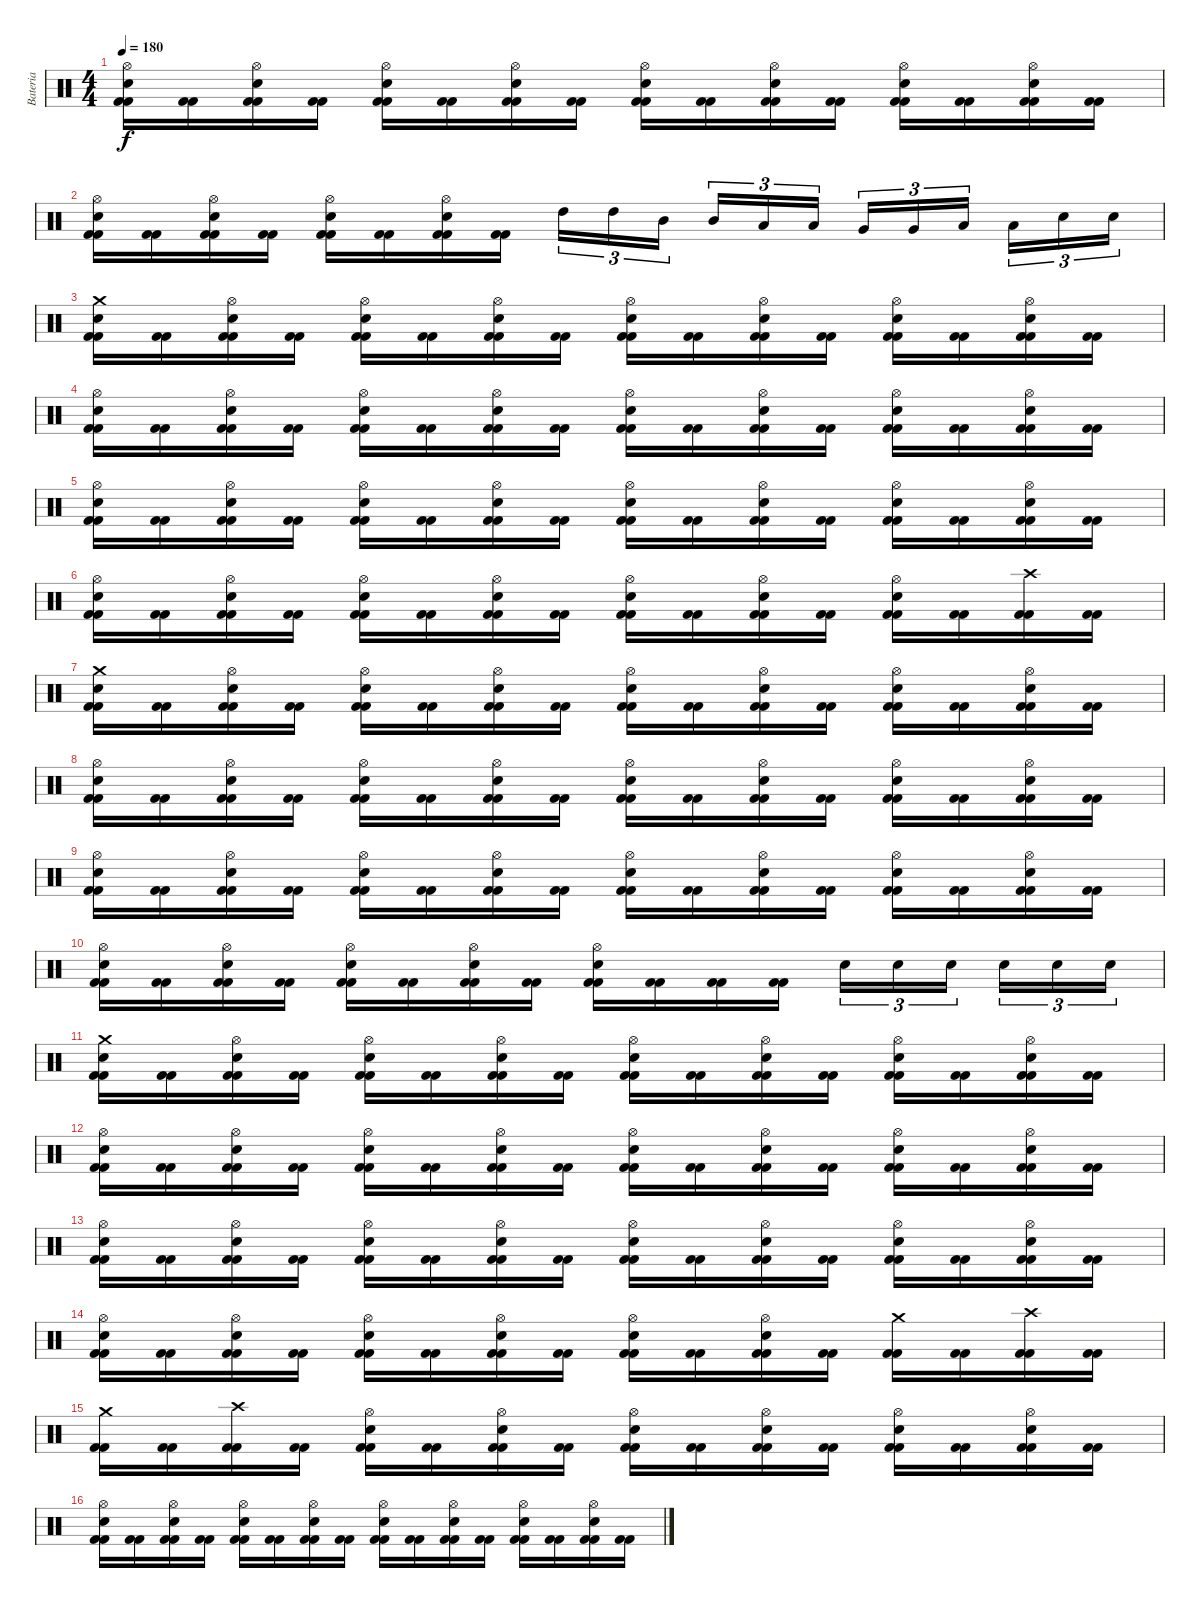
\track ("Bateria" "Bateria") {instrument percussion}
\staff {score}
\articulation defaults
\ts (4 4)
\tempo 180
\clef neutral
\ks c
("Kick (hit) 2" "Kick (hit) 2" "Snare (hit) 2" "Hi-Hat (open)").16{dy f} ("Kick (hit) 2" "Kick (hit) 2").16 ("Kick (hit) 2" "Kick (hit) 2" "Hi-Hat (open)" "Snare (hit) 2").16 ("Kick (hit) 2" "Kick (hit) 2").16 ("Kick (hit) 2" "Kick (hit) 2" "Snare (hit) 2" "Hi-Hat (open)").16 ("Kick (hit) 2" "Kick (hit) 2").16 ("Kick (hit) 2" "Kick (hit) 2" "Hi-Hat (open)" "Snare (hit) 2").16 ("Kick (hit) 2" "Kick (hit) 2").16 ("Kick (hit) 2" "Kick (hit) 2" "Snare (hit) 2" "Hi-Hat (open)").16 ("Kick (hit) 2" "Kick (hit) 2").16 ("Kick (hit) 2" "Kick (hit) 2" "Hi-Hat (open)" "Snare (hit) 2").16 ("Kick (hit) 2" "Kick (hit) 2").16 ("Kick (hit) 2" "Kick (hit) 2" "Snare (hit) 2" "Hi-Hat (open)").16 ("Kick (hit) 2" "Kick (hit) 2").16 ("Kick (hit) 2" "Kick (hit) 2" "Hi-Hat (open)" "Snare (hit) 2").16 ("Kick (hit) 2" "Kick (hit) 2").16 |
("Kick (hit) 2" "Kick (hit) 2" "Snare (hit) 2" "Hi-Hat (open)").16 ("Kick (hit) 2" "Kick (hit) 2").16 ("Kick (hit) 2" "Kick (hit) 2" "Hi-Hat (open)" "Snare (hit) 2").16 ("Kick (hit) 2" "Kick (hit) 2").16 ("Kick (hit) 2" "Kick (hit) 2" "Snare (hit) 2" "Hi-Hat (open)").16 ("Kick (hit) 2" "Kick (hit) 2").16 ("Kick (hit) 2" "Kick (hit) 2" "Hi-Hat (open)" "Snare (hit) 2").16 ("Kick (hit) 2" "Kick (hit) 2").16 "High Tom (hit)".16{tu (3 2)} "High Tom (hit)".16{tu (3 2)} "Mid Tom (hit)".16{tu (3 2)} "Mid Tom (hit)".16{tu (3 2)} "Low Tom (hit)".16{tu (3 2)} "Low Tom (hit)".16{tu (3 2)} "Very Low Tom (hit)".16{tu (3 2)} "Very Low Tom (hit)".16{tu (3 2)} "Low Floor Tom (hit)".16{tu (3 2)} "Low Floor Tom (hit)".16{tu (3 2)} "Electric Snare (hit)".16{tu (3 2)} "Electric Snare (hit)".16{tu (3 2)} |
("Kick (hit) 2" "Kick (hit) 2" "Snare (hit) 2" "Crash medium (hit)").16 ("Kick (hit) 2" "Kick (hit) 2").16 ("Kick (hit) 2" "Kick (hit) 2" "Hi-Hat (open)" "Snare (hit) 2").16 ("Kick (hit) 2" "Kick (hit) 2").16 ("Kick (hit) 2" "Kick (hit) 2" "Snare (hit) 2" "Hi-Hat (open)").16 ("Kick (hit) 2" "Kick (hit) 2").16 ("Kick (hit) 2" "Kick (hit) 2" "Hi-Hat (open)" "Snare (hit) 2").16 ("Kick (hit) 2" "Kick (hit) 2").16 ("Kick (hit) 2" "Kick (hit) 2" "Snare (hit) 2" "Hi-Hat (open)").16 ("Kick (hit) 2" "Kick (hit) 2").16 ("Kick (hit) 2" "Kick (hit) 2" "Hi-Hat (open)" "Snare (hit) 2").16 ("Kick (hit) 2" "Kick (hit) 2").16 ("Kick (hit) 2" "Kick (hit) 2" "Snare (hit) 2" "Hi-Hat (open)").16 ("Kick (hit) 2" "Kick (hit) 2").16 ("Kick (hit) 2" "Kick (hit) 2" "Hi-Hat (open)" "Snare (hit) 2").16 ("Kick (hit) 2" "Kick (hit) 2").16 |
("Kick (hit) 2" "Kick (hit) 2" "Snare (hit) 2" "Hi-Hat (open)").16 ("Kick (hit) 2" "Kick (hit) 2").16 ("Kick (hit) 2" "Kick (hit) 2" "Hi-Hat (open)" "Snare (hit) 2").16 ("Kick (hit) 2" "Kick (hit) 2").16 ("Kick (hit) 2" "Kick (hit) 2" "Snare (hit) 2" "Hi-Hat (open)").16 ("Kick (hit) 2" "Kick (hit) 2").16 ("Kick (hit) 2" "Kick (hit) 2" "Hi-Hat (open)" "Snare (hit) 2").16 ("Kick (hit) 2" "Kick (hit) 2").16 ("Kick (hit) 2" "Kick (hit) 2" "Snare (hit) 2" "Hi-Hat (open)").16 ("Kick (hit) 2" "Kick (hit) 2").16 ("Kick (hit) 2" "Kick (hit) 2" "Hi-Hat (open)" "Snare (hit) 2").16 ("Kick (hit) 2" "Kick (hit) 2").16 ("Kick (hit) 2" "Kick (hit) 2" "Snare (hit) 2" "Hi-Hat (open)").16 ("Kick (hit) 2" "Kick (hit) 2").16 ("Kick (hit) 2" "Kick (hit) 2" "Hi-Hat (open)" "Snare (hit) 2").16 ("Kick (hit) 2" "Kick (hit) 2").16 |
("Kick (hit) 2" "Kick (hit) 2" "Snare (hit) 2" "Hi-Hat (open)").16 ("Kick (hit) 2" "Kick (hit) 2").16 ("Kick (hit) 2" "Kick (hit) 2" "Hi-Hat (open)" "Snare (hit) 2").16 ("Kick (hit) 2" "Kick (hit) 2").16 ("Kick (hit) 2" "Kick (hit) 2" "Snare (hit) 2" "Hi-Hat (open)").16 ("Kick (hit) 2" "Kick (hit) 2").16 ("Kick (hit) 2" "Kick (hit) 2" "Hi-Hat (open)" "Snare (hit) 2").16 ("Kick (hit) 2" "Kick (hit) 2").16 ("Kick (hit) 2" "Kick (hit) 2" "Snare (hit) 2" "Hi-Hat (open)").16 ("Kick (hit) 2" "Kick (hit) 2").16 ("Kick (hit) 2" "Kick (hit) 2" "Hi-Hat (open)" "Snare (hit) 2").16 ("Kick (hit) 2" "Kick (hit) 2").16 ("Kick (hit) 2" "Kick (hit) 2" "Snare (hit) 2" "Hi-Hat (open)").16 ("Kick (hit) 2" "Kick (hit) 2").16 ("Kick (hit) 2" "Kick (hit) 2" "Hi-Hat (open)" "Snare (hit) 2").16 ("Kick (hit) 2" "Kick (hit) 2").16 |
("Kick (hit) 2" "Kick (hit) 2" "Snare (hit) 2" "Hi-Hat (open)").16 ("Kick (hit) 2" "Kick (hit) 2").16 ("Kick (hit) 2" "Kick (hit) 2" "Hi-Hat (open)" "Snare (hit) 2").16 ("Kick (hit) 2" "Kick (hit) 2").16 ("Kick (hit) 2" "Kick (hit) 2" "Snare (hit) 2" "Hi-Hat (open)").16 ("Kick (hit) 2" "Kick (hit) 2").16 ("Kick (hit) 2" "Kick (hit) 2" "Hi-Hat (open)" "Snare (hit) 2").16 ("Kick (hit) 2" "Kick (hit) 2").16 ("Kick (hit) 2" "Kick (hit) 2" "Snare (hit) 2" "Hi-Hat (open)").16 ("Kick (hit) 2" "Kick (hit) 2").16 ("Kick (hit) 2" "Kick (hit) 2" "Hi-Hat (open)" "Snare (hit) 2").16 ("Kick (hit) 2" "Kick (hit) 2").16 ("Kick (hit) 2" "Kick (hit) 2" "Snare (hit) 2" "Hi-Hat (open)").16 ("Kick (hit) 2" "Kick (hit) 2").16 ("Kick (hit) 2" "Kick (hit) 2" "Crash high (hit)").16 ("Kick (hit) 2" "Kick (hit) 2").16 |
("Kick (hit) 2" "Kick (hit) 2" "Snare (hit) 2" "Crash medium (hit)").16 ("Kick (hit) 2" "Kick (hit) 2").16 ("Kick (hit) 2" "Kick (hit) 2" "Hi-Hat (open)" "Snare (hit) 2").16 ("Kick (hit) 2" "Kick (hit) 2").16 ("Kick (hit) 2" "Kick (hit) 2" "Snare (hit) 2" "Hi-Hat (open)").16 ("Kick (hit) 2" "Kick (hit) 2").16 ("Kick (hit) 2" "Kick (hit) 2" "Hi-Hat (open)" "Snare (hit) 2").16 ("Kick (hit) 2" "Kick (hit) 2").16 ("Kick (hit) 2" "Kick (hit) 2" "Snare (hit) 2" "Hi-Hat (open)").16 ("Kick (hit) 2" "Kick (hit) 2").16 ("Kick (hit) 2" "Kick (hit) 2" "Hi-Hat (open)" "Snare (hit) 2").16 ("Kick (hit) 2" "Kick (hit) 2").16 ("Kick (hit) 2" "Kick (hit) 2" "Snare (hit) 2" "Hi-Hat (open)").16 ("Kick (hit) 2" "Kick (hit) 2").16 ("Kick (hit) 2" "Kick (hit) 2" "Hi-Hat (open)" "Snare (hit) 2").16 ("Kick (hit) 2" "Kick (hit) 2").16 |
("Kick (hit) 2" "Kick (hit) 2" "Snare (hit) 2" "Hi-Hat (open)").16 ("Kick (hit) 2" "Kick (hit) 2").16 ("Kick (hit) 2" "Kick (hit) 2" "Hi-Hat (open)" "Snare (hit) 2").16 ("Kick (hit) 2" "Kick (hit) 2").16 ("Kick (hit) 2" "Kick (hit) 2" "Snare (hit) 2" "Hi-Hat (open)").16 ("Kick (hit) 2" "Kick (hit) 2").16 ("Kick (hit) 2" "Kick (hit) 2" "Hi-Hat (open)" "Snare (hit) 2").16 ("Kick (hit) 2" "Kick (hit) 2").16 ("Kick (hit) 2" "Kick (hit) 2" "Snare (hit) 2" "Hi-Hat (open)").16 ("Kick (hit) 2" "Kick (hit) 2").16 ("Kick (hit) 2" "Kick (hit) 2" "Hi-Hat (open)" "Snare (hit) 2").16 ("Kick (hit) 2" "Kick (hit) 2").16 ("Kick (hit) 2" "Kick (hit) 2" "Snare (hit) 2" "Hi-Hat (open)").16 ("Kick (hit) 2" "Kick (hit) 2").16 ("Kick (hit) 2" "Kick (hit) 2" "Hi-Hat (open)" "Snare (hit) 2").16 ("Kick (hit) 2" "Kick (hit) 2").16 |
("Kick (hit) 2" "Kick (hit) 2" "Snare (hit) 2" "Hi-Hat (open)").16 ("Kick (hit) 2" "Kick (hit) 2").16 ("Kick (hit) 2" "Kick (hit) 2" "Hi-Hat (open)" "Snare (hit) 2").16 ("Kick (hit) 2" "Kick (hit) 2").16 ("Kick (hit) 2" "Kick (hit) 2" "Snare (hit) 2" "Hi-Hat (open)").16 ("Kick (hit) 2" "Kick (hit) 2").16 ("Kick (hit) 2" "Kick (hit) 2" "Hi-Hat (open)" "Snare (hit) 2").16 ("Kick (hit) 2" "Kick (hit) 2").16 ("Kick (hit) 2" "Kick (hit) 2" "Snare (hit) 2" "Hi-Hat (open)").16 ("Kick (hit) 2" "Kick (hit) 2").16 ("Kick (hit) 2" "Kick (hit) 2" "Hi-Hat (open)" "Snare (hit) 2").16 ("Kick (hit) 2" "Kick (hit) 2").16 ("Kick (hit) 2" "Kick (hit) 2" "Snare (hit) 2" "Hi-Hat (open)").16 ("Kick (hit) 2" "Kick (hit) 2").16 ("Kick (hit) 2" "Kick (hit) 2" "Hi-Hat (open)" "Snare (hit) 2").16 ("Kick (hit) 2" "Kick (hit) 2").16 |
("Kick (hit) 2" "Kick (hit) 2" "Snare (hit) 2" "Hi-Hat (open)").16 ("Kick (hit) 2" "Kick (hit) 2").16 ("Kick (hit) 2" "Kick (hit) 2" "Hi-Hat (open)" "Snare (hit) 2").16 ("Kick (hit) 2" "Kick (hit) 2").16 ("Kick (hit) 2" "Kick (hit) 2" "Snare (hit) 2" "Hi-Hat (open)").16 ("Kick (hit) 2" "Kick (hit) 2").16 ("Kick (hit) 2" "Kick (hit) 2" "Hi-Hat (open)" "Snare (hit) 2").16 ("Kick (hit) 2" "Kick (hit) 2").16 ("Kick (hit) 2" "Kick (hit) 2" "Hi-Hat (open)" "Snare (hit) 2").16 ("Kick (hit) 2" "Kick (hit) 2").16 ("Kick (hit) 2" "Kick (hit) 2").16 ("Kick (hit) 2" "Kick (hit) 2").16 "Electric Snare (hit)".16{tu (3 2)} "Electric Snare (hit)".16{tu (3 2)} "Electric Snare (hit)".16{tu (3 2)} "Electric Snare (hit)".16{tu (3 2)} "Electric Snare (hit)".16{tu (3 2)} "Electric Snare (hit)".16{tu (3 2)} |
("Kick (hit) 2" "Kick (hit) 2" "Snare (hit) 2" "Crash medium (hit)").16 ("Kick (hit) 2" "Kick (hit) 2").16 ("Kick (hit) 2" "Kick (hit) 2" "Hi-Hat (open)" "Snare (hit) 2").16 ("Kick (hit) 2" "Kick (hit) 2").16 ("Kick (hit) 2" "Kick (hit) 2" "Snare (hit) 2" "Hi-Hat (open)").16 ("Kick (hit) 2" "Kick (hit) 2").16 ("Kick (hit) 2" "Kick (hit) 2" "Hi-Hat (open)" "Snare (hit) 2").16 ("Kick (hit) 2" "Kick (hit) 2").16 ("Kick (hit) 2" "Kick (hit) 2" "Snare (hit) 2" "Hi-Hat (open)").16 ("Kick (hit) 2" "Kick (hit) 2").16 ("Kick (hit) 2" "Kick (hit) 2" "Hi-Hat (open)" "Snare (hit) 2").16 ("Kick (hit) 2" "Kick (hit) 2").16 ("Kick (hit) 2" "Kick (hit) 2" "Snare (hit) 2" "Hi-Hat (open)").16 ("Kick (hit) 2" "Kick (hit) 2").16 ("Kick (hit) 2" "Kick (hit) 2" "Hi-Hat (open)" "Snare (hit) 2").16 ("Kick (hit) 2" "Kick (hit) 2").16 |
("Kick (hit) 2" "Kick (hit) 2" "Snare (hit) 2" "Hi-Hat (open)").16 ("Kick (hit) 2" "Kick (hit) 2").16 ("Kick (hit) 2" "Kick (hit) 2" "Hi-Hat (open)" "Snare (hit) 2").16 ("Kick (hit) 2" "Kick (hit) 2").16 ("Kick (hit) 2" "Kick (hit) 2" "Snare (hit) 2" "Hi-Hat (open)").16 ("Kick (hit) 2" "Kick (hit) 2").16 ("Kick (hit) 2" "Kick (hit) 2" "Hi-Hat (open)" "Snare (hit) 2").16 ("Kick (hit) 2" "Kick (hit) 2").16 ("Kick (hit) 2" "Kick (hit) 2" "Snare (hit) 2" "Hi-Hat (open)").16 ("Kick (hit) 2" "Kick (hit) 2").16 ("Kick (hit) 2" "Kick (hit) 2" "Hi-Hat (open)" "Snare (hit) 2").16 ("Kick (hit) 2" "Kick (hit) 2").16 ("Kick (hit) 2" "Kick (hit) 2" "Snare (hit) 2" "Hi-Hat (open)").16 ("Kick (hit) 2" "Kick (hit) 2").16 ("Kick (hit) 2" "Kick (hit) 2" "Hi-Hat (open)" "Snare (hit) 2").16 ("Kick (hit) 2" "Kick (hit) 2").16 |
("Kick (hit) 2" "Kick (hit) 2" "Snare (hit) 2" "Hi-Hat (open)").16 ("Kick (hit) 2" "Kick (hit) 2").16 ("Kick (hit) 2" "Kick (hit) 2" "Hi-Hat (open)" "Snare (hit) 2").16 ("Kick (hit) 2" "Kick (hit) 2").16 ("Kick (hit) 2" "Kick (hit) 2" "Snare (hit) 2" "Hi-Hat (open)").16 ("Kick (hit) 2" "Kick (hit) 2").16 ("Kick (hit) 2" "Kick (hit) 2" "Hi-Hat (open)" "Snare (hit) 2").16 ("Kick (hit) 2" "Kick (hit) 2").16 ("Kick (hit) 2" "Kick (hit) 2" "Snare (hit) 2" "Hi-Hat (open)").16 ("Kick (hit) 2" "Kick (hit) 2").16 ("Kick (hit) 2" "Kick (hit) 2" "Hi-Hat (open)" "Snare (hit) 2").16 ("Kick (hit) 2" "Kick (hit) 2").16 ("Kick (hit) 2" "Kick (hit) 2" "Snare (hit) 2" "Hi-Hat (open)").16 ("Kick (hit) 2" "Kick (hit) 2").16 ("Kick (hit) 2" "Kick (hit) 2" "Hi-Hat (open)" "Snare (hit) 2").16 ("Kick (hit) 2" "Kick (hit) 2").16 |
("Kick (hit) 2" "Kick (hit) 2" "Snare (hit) 2" "Hi-Hat (open)").16 ("Kick (hit) 2" "Kick (hit) 2").16 ("Kick (hit) 2" "Kick (hit) 2" "Hi-Hat (open)" "Snare (hit) 2").16 ("Kick (hit) 2" "Kick (hit) 2").16 ("Kick (hit) 2" "Kick (hit) 2" "Snare (hit) 2" "Hi-Hat (open)").16 ("Kick (hit) 2" "Kick (hit) 2").16 ("Kick (hit) 2" "Kick (hit) 2" "Hi-Hat (open)" "Snare (hit) 2").16 ("Kick (hit) 2" "Kick (hit) 2").16 ("Kick (hit) 2" "Kick (hit) 2" "Snare (hit) 2" "Hi-Hat (open)").16 ("Kick (hit) 2" "Kick (hit) 2").16 ("Kick (hit) 2" "Kick (hit) 2" "Hi-Hat (open)" "Snare (hit) 2").16 ("Kick (hit) 2" "Kick (hit) 2").16 ("Kick (hit) 2" "Kick (hit) 2" "Crash medium (hit)").16 ("Kick (hit) 2" "Kick (hit) 2").16 ("Kick (hit) 2" "Kick (hit) 2" "Crash high (hit)").16 ("Kick (hit) 2" "Kick (hit) 2").16 |
("Kick (hit) 2" "Kick (hit) 2" "Crash medium (hit)").16 ("Kick (hit) 2" "Kick (hit) 2").16 ("Kick (hit) 2" "Kick (hit) 2" "Crash high (hit)").16 ("Kick (hit) 2" "Kick (hit) 2").16 ("Kick (hit) 2" "Kick (hit) 2" "Snare (hit) 2" "Hi-Hat (open)").16 ("Kick (hit) 2" "Kick (hit) 2").16 ("Kick (hit) 2" "Kick (hit) 2" "Hi-Hat (open)" "Snare (hit) 2").16 ("Kick (hit) 2" "Kick (hit) 2").16 ("Kick (hit) 2" "Kick (hit) 2" "Snare (hit) 2" "Hi-Hat (open)").16 ("Kick (hit) 2" "Kick (hit) 2").16 ("Kick (hit) 2" "Kick (hit) 2" "Hi-Hat (open)" "Snare (hit) 2").16 ("Kick (hit) 2" "Kick (hit) 2").16 ("Kick (hit) 2" "Kick (hit) 2" "Snare (hit) 2" "Hi-Hat (open)").16 ("Kick (hit) 2" "Kick (hit) 2").16 ("Kick (hit) 2" "Kick (hit) 2" "Hi-Hat (open)" "Snare (hit) 2").16 ("Kick (hit) 2" "Kick (hit) 2").16 |
("Kick (hit) 2" "Kick (hit) 2" "Snare (hit) 2" "Hi-Hat (open)").16 ("Kick (hit) 2" "Kick (hit) 2").16 ("Kick (hit) 2" "Kick (hit) 2" "Hi-Hat (open)" "Snare (hit) 2").16 ("Kick (hit) 2" "Kick (hit) 2").16 ("Kick (hit) 2" "Kick (hit) 2" "Snare (hit) 2" "Hi-Hat (open)").16 ("Kick (hit) 2" "Kick (hit) 2").16 ("Kick (hit) 2" "Kick (hit) 2" "Hi-Hat (open)" "Snare (hit) 2").16 ("Kick (hit) 2" "Kick (hit) 2").16 ("Kick (hit) 2" "Kick (hit) 2" "Snare (hit) 2" "Hi-Hat (open)").16 ("Kick (hit) 2" "Kick (hit) 2").16 ("Kick (hit) 2" "Kick (hit) 2" "Hi-Hat (open)" "Snare (hit) 2").16 ("Kick (hit) 2" "Kick (hit) 2").16 ("Kick (hit) 2" "Kick (hit) 2" "Snare (hit) 2" "Hi-Hat (open)").16 ("Kick (hit) 2" "Kick (hit) 2").16 ("Kick (hit) 2" "Kick (hit) 2" "Hi-Hat (open)" "Snare (hit) 2").16 ("Kick (hit) 2" "Kick (hit) 2").16
